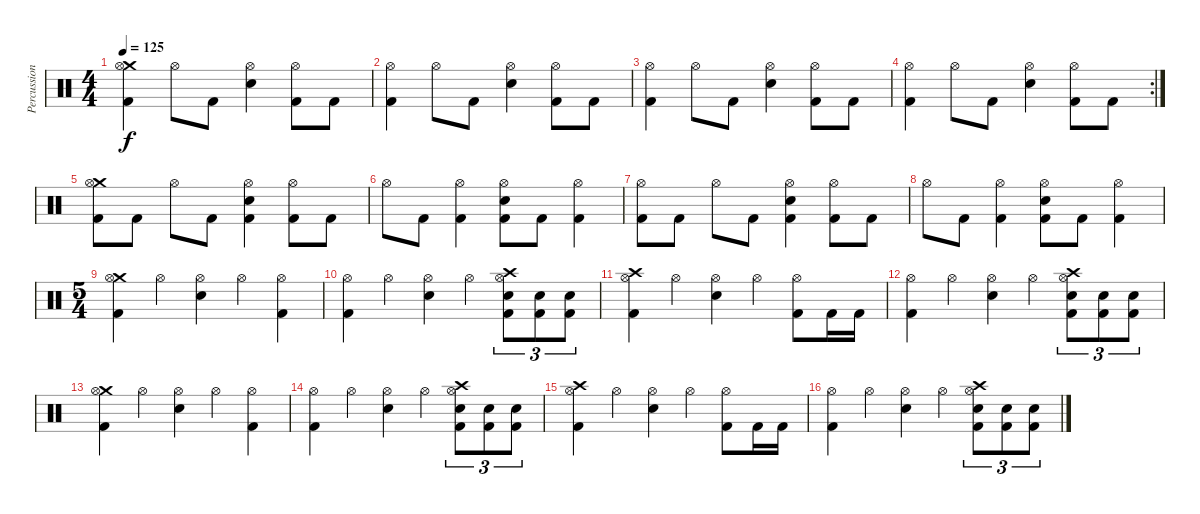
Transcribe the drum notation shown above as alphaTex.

\track ("Percussion" "Percussion") {instrument percussion}
\staff {score}
\articulation defaults
\ts (4 4)
\tempo 125
\clef neutral
\ks c
("Crash medium (hit)" "Hi-Hat (open)" "Kick (hit) 2").4{dy f} "Hi-Hat (open)".8 "Kick (hit) 2".8 ("Hi-Hat (open)" "Electric Snare (hit)").4 ("Hi-Hat (open)" "Kick (hit) 2").8 "Kick (hit) 2".8 |
("Hi-Hat (open)" "Kick (hit) 2").4 "Hi-Hat (open)".8 "Kick (hit) 2".8 ("Hi-Hat (open)" "Electric Snare (hit)").4 ("Hi-Hat (open)" "Kick (hit) 2").8 "Kick (hit) 2".8 |
("Hi-Hat (open)" "Kick (hit) 2").4 "Hi-Hat (open)".8 "Kick (hit) 2".8 ("Hi-Hat (open)" "Electric Snare (hit)").4 ("Hi-Hat (open)" "Kick (hit) 2").8 "Kick (hit) 2".8 |
\rc 2
("Hi-Hat (open)" "Kick (hit) 2").4 "Hi-Hat (open)".8 "Kick (hit) 2".8 ("Hi-Hat (open)" "Electric Snare (hit)").4 ("Hi-Hat (open)" "Kick (hit) 2").8 "Kick (hit) 2".8 |
("Crash medium (hit)" "Hi-Hat (open)" "Kick (hit) 2").8 "Kick (hit) 2".8 "Hi-Hat (open)".8 "Kick (hit) 2".8 ("Hi-Hat (open)" "Electric Snare (hit)" "Kick (hit) 2").4 ("Hi-Hat (open)" "Kick (hit) 2").8 "Kick (hit) 2".8 |
"Hi-Hat (open)".8 "Kick (hit) 2".8 ("Hi-Hat (open)" "Kick (hit) 2").4 ("Hi-Hat (open)" "Electric Snare (hit)" "Kick (hit) 2").8 "Kick (hit) 2".8 ("Hi-Hat (open)" "Kick (hit) 2").4 |
("Hi-Hat (open)" "Kick (hit) 2").8 "Kick (hit) 2".8 "Hi-Hat (open)".8 "Kick (hit) 2".8 ("Hi-Hat (open)" "Electric Snare (hit)" "Kick (hit) 2").4 ("Hi-Hat (open)" "Kick (hit) 2").8 "Kick (hit) 2".8 |
"Hi-Hat (open)".8 "Kick (hit) 2".8 ("Hi-Hat (open)" "Kick (hit) 2").4 ("Hi-Hat (open)" "Electric Snare (hit)" "Kick (hit) 2").8 "Kick (hit) 2".8 ("Hi-Hat (open)" "Kick (hit) 2").4 |
\ts (5 4)
("Crash medium (hit)" "Hi-Hat (open)" "Kick (hit) 2").4 "Hi-Hat (open)".4 ("Hi-Hat (open)" "Electric Snare (hit)").4 "Hi-Hat (open)".4 ("Hi-Hat (open)" "Kick (hit) 2").4 |
("Hi-Hat (open)" "Kick (hit) 2").4 "Hi-Hat (open)".4 ("Hi-Hat (open)" "Electric Snare (hit)").4 "Hi-Hat (open)".4 ("Crash high (hit)" "Hi-Hat (open)" "Electric Snare (hit)" "Kick (hit) 2").8{tu (3 2)} ("Electric Snare (hit)" "Kick (hit) 2").8{tu (3 2)} ("Electric Snare (hit)" "Kick (hit) 2").8{tu (3 2)} |
("Crash high (hit)" "Hi-Hat (open)" "Kick (hit) 2").4 "Hi-Hat (open)".4 ("Hi-Hat (open)" "Electric Snare (hit)").4 "Hi-Hat (open)".4 ("Hi-Hat (open)" "Kick (hit) 2").8 "Kick (hit) 2".16 "Kick (hit) 2".16 |
("Hi-Hat (open)" "Kick (hit) 2").4 "Hi-Hat (open)".4 ("Hi-Hat (open)" "Electric Snare (hit)").4 "Hi-Hat (open)".4 ("Crash high (hit)" "Hi-Hat (open)" "Electric Snare (hit)" "Kick (hit) 2").8{tu (3 2)} ("Electric Snare (hit)" "Kick (hit) 2").8{tu (3 2)} ("Electric Snare (hit)" "Kick (hit) 2").8{tu (3 2)} |
("Crash medium (hit)" "Hi-Hat (open)" "Kick (hit) 2").4 "Hi-Hat (open)".4 ("Hi-Hat (open)" "Electric Snare (hit)").4 "Hi-Hat (open)".4 ("Hi-Hat (open)" "Kick (hit) 2").4 |
("Hi-Hat (open)" "Kick (hit) 2").4 "Hi-Hat (open)".4 ("Hi-Hat (open)" "Electric Snare (hit)").4 "Hi-Hat (open)".4 ("Crash high (hit)" "Hi-Hat (open)" "Electric Snare (hit)" "Kick (hit) 2").8{tu (3 2)} ("Electric Snare (hit)" "Kick (hit) 2").8{tu (3 2)} ("Electric Snare (hit)" "Kick (hit) 2").8{tu (3 2)} |
("Crash high (hit)" "Hi-Hat (open)" "Kick (hit) 2").4 "Hi-Hat (open)".4 ("Hi-Hat (open)" "Electric Snare (hit)").4 "Hi-Hat (open)".4 ("Hi-Hat (open)" "Kick (hit) 2").8 "Kick (hit) 2".16 "Kick (hit) 2".16 |
("Hi-Hat (open)" "Kick (hit) 2").4 "Hi-Hat (open)".4 ("Hi-Hat (open)" "Electric Snare (hit)").4 "Hi-Hat (open)".4 ("Crash high (hit)" "Hi-Hat (open)" "Electric Snare (hit)" "Kick (hit) 2").8{tu (3 2)} ("Electric Snare (hit)" "Kick (hit) 2").8{tu (3 2)} ("Electric Snare (hit)" "Kick (hit) 2").8{tu (3 2)}
